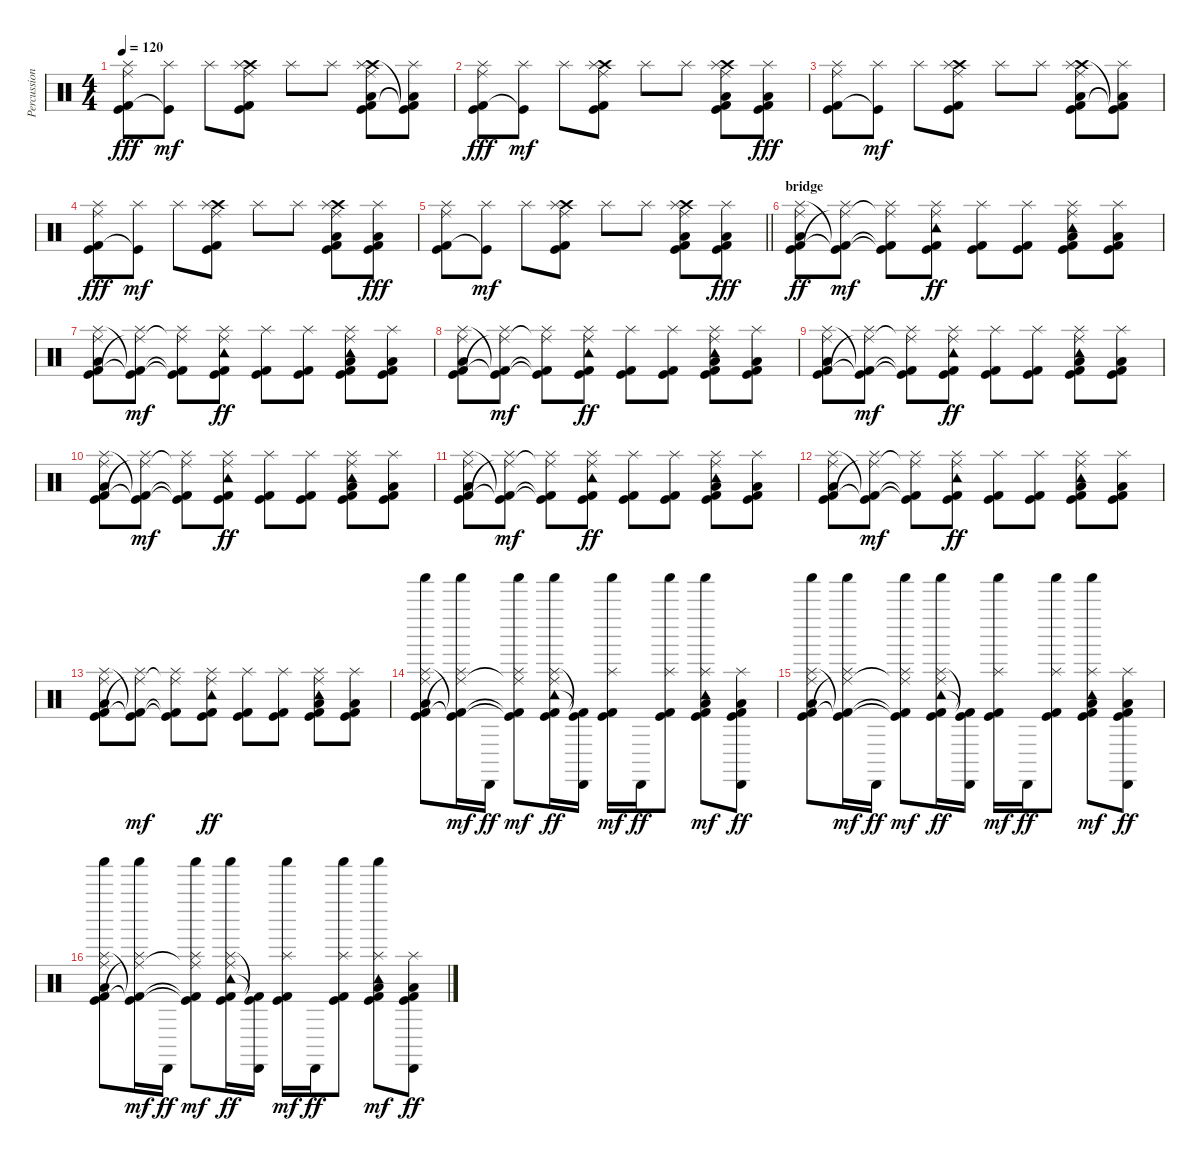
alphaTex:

\track ("Percussion" "Percussion") {instrument percussion}
\staff {score}
\articulation defaults
\ts (4 4)
\tempo 120
\clef neutral
\ks c
("Splash (hit)" "Kick (hit) 2" "Kick (hit)" "Ride (middle)").8{dy fff} ("Splash (hit)" "Kick (hit)"{t}).8{dy mf} "Splash (hit)".8 ("Crash high (hit)" "Splash (hit)" "Kick (hit) 2" "Kick (hit)" "Ride (middle)").8 "Splash (hit)".8 "Splash (hit)".8 ("Crash high (hit)" "Kick (hit) 2" "Splash (hit)" "Low Tom (hit)" "Kick (hit)" "Ride (middle)").8 ("Splash (hit)" "Low Tom (hit)"{t} "Kick (hit)"{t} "Kick (hit) 2"{t}).8 |
("Splash (hit)" "Kick (hit) 2" "Kick (hit)" "Ride (middle)").8{dy fff} ("Splash (hit)" "Kick (hit)"{t}).8{dy mf} "Splash (hit)".8 ("Crash high (hit)" "Splash (hit)" "Kick (hit) 2" "Kick (hit)" "Ride (middle)").8 "Splash (hit)".8 "Splash (hit)".8 ("Crash high (hit)" "Kick (hit) 2" "Splash (hit)" "Low Tom (hit)" "Kick (hit)" "Ride (middle)").8 ("Splash (hit)" "Low Tom (hit)" "Kick (hit)" "Kick (hit) 2").8{dy fff} |
("Splash (hit)" "Kick (hit) 2" "Kick (hit)" "Ride (middle)").8 ("Splash (hit)" "Kick (hit)"{t}).8{dy mf} "Splash (hit)".8 ("Crash high (hit)" "Splash (hit)" "Kick (hit) 2" "Kick (hit)" "Ride (middle)").8 "Splash (hit)".8 "Splash (hit)".8 ("Crash high (hit)" "Kick (hit) 2" "Splash (hit)" "Low Tom (hit)" "Kick (hit)" "Ride (middle)").8 ("Splash (hit)" "Low Tom (hit)"{t} "Kick (hit)"{t} "Kick (hit) 2"{t}).8 |
("Splash (hit)" "Kick (hit) 2" "Kick (hit)" "Ride (middle)").8{dy fff} ("Splash (hit)" "Kick (hit)"{t}).8{dy mf} "Splash (hit)".8 ("Crash high (hit)" "Splash (hit)" "Kick (hit) 2" "Kick (hit)" "Ride (middle)").8 "Splash (hit)".8 "Splash (hit)".8 ("Crash high (hit)" "Kick (hit) 2" "Splash (hit)" "Low Tom (hit)" "Kick (hit)" "Ride (middle)").8 ("Splash (hit)" "Low Tom (hit)" "Kick (hit)" "Kick (hit) 2").8{dy fff} |
\barLineRight lightlight
("Splash (hit)" "Kick (hit) 2" "Kick (hit)" "Ride (middle)").8 ("Splash (hit)" "Kick (hit)"{t}).8{dy mf} "Splash (hit)".8 ("Crash high (hit)" "Splash (hit)" "Kick (hit) 2" "Kick (hit)" "Ride (middle)").8 "Splash (hit)".8 "Splash (hit)".8 ("Crash high (hit)" "Kick (hit) 2" "Splash (hit)" "Low Tom (hit)" "Kick (hit)" "Ride (middle)").8 ("Splash (hit)" "Low Tom (hit)" "Kick (hit)" "Kick (hit) 2").8{dy fff} |
\section ("" "bridge")
("Low Tom (hit)" "Splash (hit)" "Kick (hit) 2" "Kick (hit)" "Ride (middle)").8{dy ff} ("Splash (hit)" "Kick (hit) 2"{t} "Kick (hit)"{t} "Ride (middle)"{t}).8{dy mf} ("Splash (hit)" "Kick (hit) 2"{t} "Kick (hit)"{t} "Ride (middle)"{t}).8 ("Tambourine (hit)" "Splash (hit)" "Kick (hit) 2" "Kick (hit)" "Ride (middle)").8{dy ff} ("Splash (hit)" "Kick (hit)" "Kick (hit) 2").8 ("Splash (hit)" "Kick (hit)" "Kick (hit) 2").8 ("Tambourine (hit)" "Kick (hit) 2" "Splash (hit)" "Low Tom (hit)" "Kick (hit)" "Ride (middle)").8 ("Splash (hit)" "Low Tom (hit)" "Kick (hit)" "Kick (hit) 2").8 |
("Low Tom (hit)" "Splash (hit)" "Kick (hit) 2" "Kick (hit)" "Ride (middle)").8 ("Splash (hit)" "Kick (hit) 2"{t} "Kick (hit)"{t} "Ride (middle)"{t}).8{dy mf} ("Splash (hit)" "Kick (hit) 2"{t} "Kick (hit)"{t} "Ride (middle)"{t}).8 ("Tambourine (hit)" "Splash (hit)" "Kick (hit) 2" "Kick (hit)" "Ride (middle)").8{dy ff} ("Splash (hit)" "Kick (hit)" "Kick (hit) 2").8 ("Splash (hit)" "Kick (hit)" "Kick (hit) 2").8 ("Tambourine (hit)" "Kick (hit) 2" "Splash (hit)" "Low Tom (hit)" "Kick (hit)" "Ride (middle)").8 ("Splash (hit)" "Low Tom (hit)" "Kick (hit)" "Kick (hit) 2").8 |
("Low Tom (hit)" "Splash (hit)" "Kick (hit) 2" "Kick (hit)" "Ride (middle)").8 ("Splash (hit)" "Kick (hit) 2"{t} "Kick (hit)"{t} "Ride (middle)"{t}).8{dy mf} ("Splash (hit)" "Kick (hit) 2"{t} "Kick (hit)"{t} "Ride (middle)"{t}).8 ("Tambourine (hit)" "Splash (hit)" "Kick (hit) 2" "Kick (hit)" "Ride (middle)").8{dy ff} ("Splash (hit)" "Kick (hit)" "Kick (hit) 2").8 ("Splash (hit)" "Kick (hit)" "Kick (hit) 2").8 ("Tambourine (hit)" "Kick (hit) 2" "Splash (hit)" "Low Tom (hit)" "Kick (hit)" "Ride (middle)").8 ("Splash (hit)" "Low Tom (hit)" "Kick (hit)" "Kick (hit) 2").8 |
("Low Tom (hit)" "Splash (hit)" "Kick (hit) 2" "Kick (hit)" "Ride (middle)").8 ("Splash (hit)" "Kick (hit) 2"{t} "Kick (hit)"{t} "Ride (middle)"{t}).8{dy mf} ("Splash (hit)" "Kick (hit) 2"{t} "Kick (hit)"{t} "Ride (middle)"{t}).8 ("Tambourine (hit)" "Splash (hit)" "Kick (hit) 2" "Kick (hit)" "Ride (middle)").8{dy ff} ("Splash (hit)" "Kick (hit)" "Kick (hit) 2").8 ("Splash (hit)" "Kick (hit)" "Kick (hit) 2").8 ("Tambourine (hit)" "Kick (hit) 2" "Splash (hit)" "Low Tom (hit)" "Kick (hit)" "Ride (middle)").8 ("Splash (hit)" "Low Tom (hit)" "Kick (hit)" "Kick (hit) 2").8 |
("Low Tom (hit)" "Splash (hit)" "Kick (hit) 2" "Kick (hit)" "Ride (middle)").8 ("Splash (hit)" "Kick (hit) 2"{t} "Kick (hit)"{t} "Ride (middle)"{t}).8{dy mf} ("Splash (hit)" "Kick (hit) 2"{t} "Kick (hit)"{t} "Ride (middle)"{t}).8 ("Tambourine (hit)" "Splash (hit)" "Kick (hit) 2" "Kick (hit)" "Ride (middle)").8{dy ff} ("Splash (hit)" "Kick (hit)" "Kick (hit) 2").8 ("Splash (hit)" "Kick (hit)" "Kick (hit) 2").8 ("Tambourine (hit)" "Kick (hit) 2" "Splash (hit)" "Low Tom (hit)" "Kick (hit)" "Ride (middle)").8 ("Splash (hit)" "Low Tom (hit)" "Kick (hit)" "Kick (hit) 2").8 |
("Low Tom (hit)" "Splash (hit)" "Kick (hit) 2" "Kick (hit)" "Ride (middle)").8 ("Splash (hit)" "Kick (hit) 2"{t} "Kick (hit)"{t} "Ride (middle)"{t}).8{dy mf} ("Splash (hit)" "Kick (hit) 2"{t} "Kick (hit)"{t} "Ride (middle)"{t}).8 ("Tambourine (hit)" "Splash (hit)" "Kick (hit) 2" "Kick (hit)" "Ride (middle)").8{dy ff} ("Splash (hit)" "Kick (hit)" "Kick (hit) 2").8 ("Splash (hit)" "Kick (hit)" "Kick (hit) 2").8 ("Tambourine (hit)" "Kick (hit) 2" "Splash (hit)" "Low Tom (hit)" "Kick (hit)" "Ride (middle)").8 ("Splash (hit)" "Low Tom (hit)" "Kick (hit)" "Kick (hit) 2").8 |
("Low Tom (hit)" "Splash (hit)" "Kick (hit) 2" "Kick (hit)" "Ride (middle)").8 ("Splash (hit)" "Kick (hit) 2"{t} "Kick (hit)"{t} "Ride (middle)"{t}).8{dy mf} ("Splash (hit)" "Kick (hit) 2"{t} "Kick (hit)"{t} "Ride (middle)"{t}).8 ("Tambourine (hit)" "Splash (hit)" "Kick (hit) 2" "Kick (hit)" "Ride (middle)").8{dy ff} ("Splash (hit)" "Kick (hit)" "Kick (hit) 2").8 ("Splash (hit)" "Kick (hit)" "Kick (hit) 2").8 ("Tambourine (hit)" "Kick (hit) 2" "Splash (hit)" "Low Tom (hit)" "Kick (hit)" "Ride (middle)").8 ("Splash (hit)" "Low Tom (hit)" "Kick (hit)" "Kick (hit) 2").8 |
("Low Tom (hit)" "Splash (hit)" "Kick (hit) 2" "Kick (hit)" "Ride (middle)").8 ("Splash (hit)" "Kick (hit) 2"{t} "Kick (hit)"{t} "Ride (middle)"{t}).8{dy mf} ("Splash (hit)" "Kick (hit) 2"{t} "Kick (hit)"{t} "Ride (middle)"{t}).8 ("Tambourine (hit)" "Splash (hit)" "Kick (hit) 2" "Kick (hit)" "Ride (middle)").8{dy ff} ("Splash (hit)" "Kick (hit)" "Kick (hit) 2").8 ("Splash (hit)" "Kick (hit)" "Kick (hit) 2").8 ("Tambourine (hit)" "Kick (hit) 2" "Splash (hit)" "Low Tom (hit)" "Kick (hit)" "Ride (middle)").8 ("Splash (hit)" "Low Tom (hit)" "Kick (hit)" "Kick (hit) 2").8 |
("Shaker (hit)" "Low Tom (hit)" "Splash (hit)" "Kick (hit) 2" "Kick (hit)" "Ride (middle)").8 ("Shaker (hit)" "Splash (hit)" "Kick (hit) 2"{t} "Kick (hit)"{t} "Ride (middle)"{t}).16{dy mf} "Cabasa (hit)".16{dy ff} ("Shaker (hit)" "Splash (hit)" "Kick (hit) 2"{t} "Kick (hit)"{t} "Ride (middle)"{t}).8{dy mf} ("Shaker (hit)" "Tambourine (hit)" "Splash (hit)" "Ride (middle)" "Kick (hit) 2" "Kick (hit)").16{dy ff} ("Cabasa (hit)" "Kick (hit)"{t} "Kick (hit) 2"{t}).16 ("Shaker (hit)" "Splash (hit)" "Kick (hit)" "Kick (hit) 2").16{dy mf} "Cabasa (hit)".16{dy ff} ("Shaker (hit)" "Splash (hit)" "Kick (hit)" "Kick (hit) 2").8 ("Shaker (hit)" "Tambourine (hit)" "Splash (hit)" "Low Tom (hit)" "Kick (hit) 2" "Kick (hit)").8{dy mf} ("Cabasa (hit)" "Splash (hit)" "Low Tom (hit)" "Kick (hit)" "Kick (hit) 2").8{dy ff} |
("Shaker (hit)" "Low Tom (hit)" "Splash (hit)" "Kick (hit) 2" "Kick (hit)" "Ride (middle)").8 ("Shaker (hit)" "Splash (hit)" "Kick (hit) 2"{t} "Kick (hit)"{t} "Ride (middle)"{t}).16{dy mf} "Cabasa (hit)".16{dy ff} ("Shaker (hit)" "Splash (hit)" "Kick (hit) 2"{t} "Kick (hit)"{t} "Ride (middle)"{t}).8{dy mf} ("Shaker (hit)" "Tambourine (hit)" "Splash (hit)" "Ride (middle)" "Kick (hit) 2" "Kick (hit)").16{dy ff} ("Cabasa (hit)" "Kick (hit)"{t} "Kick (hit) 2"{t}).16 ("Shaker (hit)" "Splash (hit)" "Kick (hit)" "Kick (hit) 2").16{dy mf} "Cabasa (hit)".16{dy ff} ("Shaker (hit)" "Splash (hit)" "Kick (hit)" "Kick (hit) 2").8 ("Shaker (hit)" "Tambourine (hit)" "Splash (hit)" "Low Tom (hit)" "Kick (hit) 2" "Kick (hit)").8{dy mf} ("Cabasa (hit)" "Splash (hit)" "Low Tom (hit)" "Kick (hit)" "Kick (hit) 2").8{dy ff} |
("Shaker (hit)" "Low Tom (hit)" "Splash (hit)" "Kick (hit) 2" "Kick (hit)" "Ride (middle)").8 ("Shaker (hit)" "Splash (hit)" "Kick (hit) 2"{t} "Kick (hit)"{t} "Ride (middle)"{t}).16{dy mf} "Cabasa (hit)".16{dy ff} ("Shaker (hit)" "Splash (hit)" "Kick (hit) 2"{t} "Kick (hit)"{t} "Ride (middle)"{t}).8{dy mf} ("Shaker (hit)" "Tambourine (hit)" "Splash (hit)" "Ride (middle)" "Kick (hit) 2" "Kick (hit)").16{dy ff} ("Cabasa (hit)" "Kick (hit)"{t} "Kick (hit) 2"{t}).16 ("Shaker (hit)" "Splash (hit)" "Kick (hit)" "Kick (hit) 2").16{dy mf} "Cabasa (hit)".16{dy ff} ("Shaker (hit)" "Splash (hit)" "Kick (hit)" "Kick (hit) 2").8 ("Shaker (hit)" "Tambourine (hit)" "Splash (hit)" "Low Tom (hit)" "Kick (hit) 2" "Kick (hit)").8{dy mf} ("Cabasa (hit)" "Splash (hit)" "Low Tom (hit)" "Kick (hit)" "Kick (hit) 2").8{dy ff}
